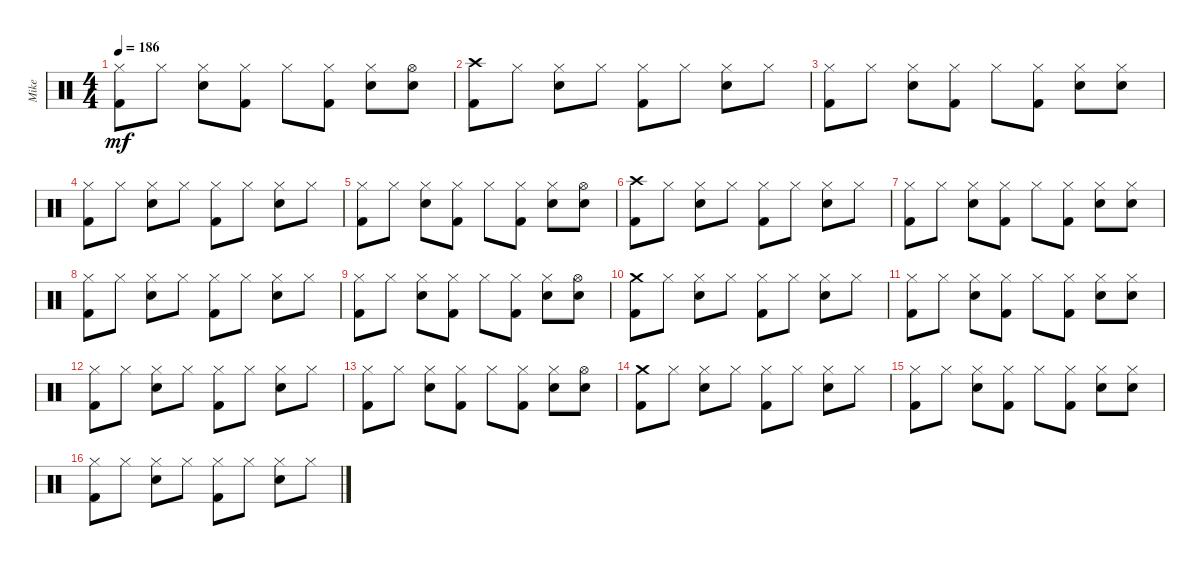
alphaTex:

\track ("Mike" "Mike") {instrument percussion}
\staff {score}
\articulation defaults
\ts (4 4)
\tempo 186
\clef neutral
\ks c
("Hi-Hat (closed)" "Kick (hit) 2").8{dy mf} "Hi-Hat (closed)".8 ("Hi-Hat (closed)" "Snare (hit) 2").8 ("Hi-Hat (closed)" "Kick (hit) 2").8 "Hi-Hat (closed)".8 ("Hi-Hat (closed)" "Kick (hit) 2").8 ("Hi-Hat (closed)" "Snare (hit) 2").8 ("Hi-Hat (open)" "Snare (hit) 2").8 |
("Crash high (hit)" "Kick (hit) 2").8 "Hi-Hat (closed)".8 ("Hi-Hat (closed)" "Snare (hit) 2").8 "Hi-Hat (closed)".8 ("Hi-Hat (closed)" "Kick (hit) 2").8 "Hi-Hat (closed)".8 ("Hi-Hat (closed)" "Snare (hit) 2").8 "Hi-Hat (closed)".8 |
("Hi-Hat (closed)" "Kick (hit) 2").8 "Hi-Hat (closed)".8 ("Hi-Hat (closed)" "Snare (hit) 2").8 ("Hi-Hat (closed)" "Kick (hit) 2").8 "Hi-Hat (closed)".8 ("Hi-Hat (closed)" "Kick (hit) 2").8 ("Hi-Hat (closed)" "Snare (hit) 2").8 ("Hi-Hat (closed)" "Snare (hit) 2").8 |
("Hi-Hat (closed)" "Kick (hit) 2").8 "Hi-Hat (closed)".8 ("Hi-Hat (closed)" "Snare (hit) 2").8 "Hi-Hat (closed)".8 ("Hi-Hat (closed)" "Kick (hit) 2").8 "Hi-Hat (closed)".8 ("Hi-Hat (closed)" "Snare (hit) 2").8 "Hi-Hat (closed)".8 |
("Hi-Hat (closed)" "Kick (hit) 2").8 "Hi-Hat (closed)".8 ("Hi-Hat (closed)" "Snare (hit) 2").8 ("Hi-Hat (closed)" "Kick (hit) 2").8 "Hi-Hat (closed)".8 ("Hi-Hat (closed)" "Kick (hit) 2").8 ("Hi-Hat (closed)" "Snare (hit) 2").8 ("Hi-Hat (open)" "Snare (hit) 2").8 |
("Crash high (hit)" "Kick (hit) 2").8 "Hi-Hat (closed)".8 ("Hi-Hat (closed)" "Snare (hit) 2").8 "Hi-Hat (closed)".8 ("Hi-Hat (closed)" "Kick (hit) 2").8 "Hi-Hat (closed)".8 ("Hi-Hat (closed)" "Snare (hit) 2").8 "Hi-Hat (closed)".8 |
("Hi-Hat (closed)" "Kick (hit) 2").8 "Hi-Hat (closed)".8 ("Hi-Hat (closed)" "Snare (hit) 2").8 ("Hi-Hat (closed)" "Kick (hit) 2").8 "Hi-Hat (closed)".8 ("Hi-Hat (closed)" "Kick (hit) 2").8 ("Hi-Hat (closed)" "Snare (hit) 2").8 ("Hi-Hat (closed)" "Snare (hit) 2").8 |
("Hi-Hat (closed)" "Kick (hit) 2").8 "Hi-Hat (closed)".8 ("Hi-Hat (closed)" "Snare (hit) 2").8 "Hi-Hat (closed)".8 ("Hi-Hat (closed)" "Kick (hit) 2").8 "Hi-Hat (closed)".8 ("Hi-Hat (closed)" "Snare (hit) 2").8 "Hi-Hat (closed)".8 |
("Hi-Hat (closed)" "Kick (hit) 2").8 "Hi-Hat (closed)".8 ("Hi-Hat (closed)" "Snare (hit) 2").8 ("Hi-Hat (closed)" "Kick (hit) 2").8 "Hi-Hat (closed)".8 ("Hi-Hat (closed)" "Kick (hit) 2").8 ("Hi-Hat (closed)" "Snare (hit) 2").8 ("Hi-Hat (open)" "Snare (hit) 2").8 |
("Crash medium (hit)" "Kick (hit) 2").8 "Hi-Hat (closed)".8 ("Hi-Hat (closed)" "Snare (hit) 2").8 "Hi-Hat (closed)".8 ("Hi-Hat (closed)" "Kick (hit) 2").8 "Hi-Hat (closed)".8 ("Hi-Hat (closed)" "Snare (hit) 2").8 "Hi-Hat (closed)".8 |
("Hi-Hat (closed)" "Kick (hit) 2").8 "Hi-Hat (closed)".8 ("Hi-Hat (closed)" "Snare (hit) 2").8 ("Hi-Hat (closed)" "Kick (hit) 2").8 "Hi-Hat (closed)".8 ("Hi-Hat (closed)" "Kick (hit) 2").8 ("Hi-Hat (closed)" "Snare (hit) 2").8 ("Hi-Hat (closed)" "Snare (hit) 2").8 |
("Hi-Hat (closed)" "Kick (hit) 2").8 "Hi-Hat (closed)".8 ("Hi-Hat (closed)" "Snare (hit) 2").8 "Hi-Hat (closed)".8 ("Hi-Hat (closed)" "Kick (hit) 2").8 "Hi-Hat (closed)".8 ("Hi-Hat (closed)" "Snare (hit) 2").8 "Hi-Hat (closed)".8 |
("Hi-Hat (closed)" "Kick (hit) 2").8 "Hi-Hat (closed)".8 ("Hi-Hat (closed)" "Snare (hit) 2").8 ("Hi-Hat (closed)" "Kick (hit) 2").8 "Hi-Hat (closed)".8 ("Hi-Hat (closed)" "Kick (hit) 2").8 ("Hi-Hat (closed)" "Snare (hit) 2").8 ("Hi-Hat (open)" "Snare (hit) 2").8 |
("Crash medium (hit)" "Kick (hit) 2").8 "Hi-Hat (closed)".8 ("Hi-Hat (closed)" "Snare (hit) 2").8 "Hi-Hat (closed)".8 ("Hi-Hat (closed)" "Kick (hit) 2").8 "Hi-Hat (closed)".8 ("Hi-Hat (closed)" "Snare (hit) 2").8 "Hi-Hat (closed)".8 |
("Hi-Hat (closed)" "Kick (hit) 2").8 "Hi-Hat (closed)".8 ("Hi-Hat (closed)" "Snare (hit) 2").8 ("Hi-Hat (closed)" "Kick (hit) 2").8 "Hi-Hat (closed)".8 ("Hi-Hat (closed)" "Kick (hit) 2").8 ("Hi-Hat (closed)" "Snare (hit) 2").8 ("Hi-Hat (closed)" "Snare (hit) 2").8 |
("Hi-Hat (closed)" "Kick (hit) 2").8 "Hi-Hat (closed)".8 ("Hi-Hat (closed)" "Snare (hit) 2").8 "Hi-Hat (closed)".8 ("Hi-Hat (closed)" "Kick (hit) 2").8 "Hi-Hat (closed)".8 ("Hi-Hat (closed)" "Snare (hit) 2").8 "Hi-Hat (closed)".8
